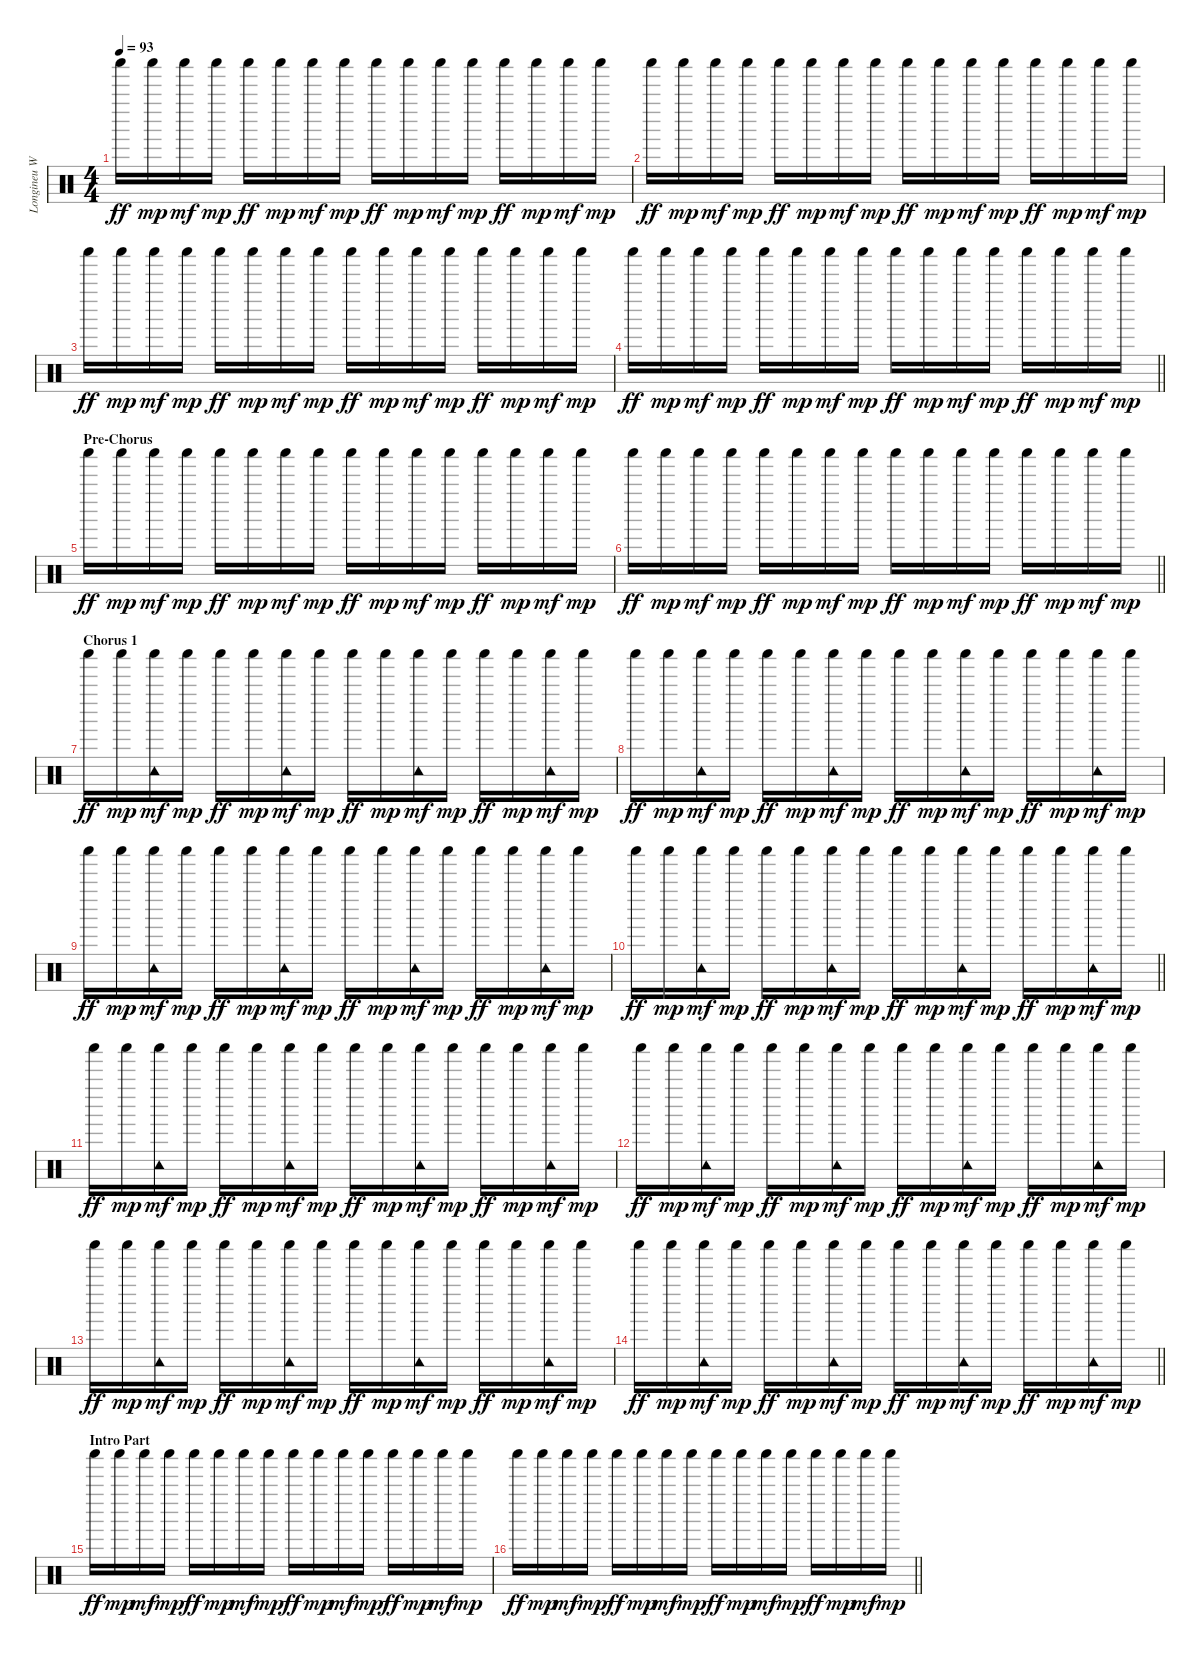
\track ("Longineu W. Parsons |||" "Longineu W") {instrument percussion}
\staff {score}
\articulation defaults
\ts (4 4)
\tempo 93
\clef neutral
\ks c "Shaker (hit)".16{dy ff} "Shaker (hit)".16{dy mp} "Shaker (hit)".16{dy mf} "Shaker (hit)".16{dy mp} "Shaker (hit)".16{dy ff} "Shaker (hit)".16{dy mp} "Shaker (hit)".16{dy mf} "Shaker (hit)".16{dy mp} "Shaker (hit)".16{dy ff} "Shaker (hit)".16{dy mp} "Shaker (hit)".16{dy mf} "Shaker (hit)".16{dy mp} "Shaker (hit)".16{dy ff} "Shaker (hit)".16{dy mp} "Shaker (hit)".16{dy mf} "Shaker (hit)".16{dy mp}
|
"Shaker (hit)".16{dy ff} "Shaker (hit)".16{dy mp} "Shaker (hit)".16{dy mf} "Shaker (hit)".16{dy mp} "Shaker (hit)".16{dy ff} "Shaker (hit)".16{dy mp} "Shaker (hit)".16{dy mf} "Shaker (hit)".16{dy mp} "Shaker (hit)".16{dy ff} "Shaker (hit)".16{dy mp} "Shaker (hit)".16{dy mf} "Shaker (hit)".16{dy mp} "Shaker (hit)".16{dy ff} "Shaker (hit)".16{dy mp} "Shaker (hit)".16{dy mf} "Shaker (hit)".16{dy mp} |
"Shaker (hit)".16{dy ff} "Shaker (hit)".16{dy mp} "Shaker (hit)".16{dy mf} "Shaker (hit)".16{dy mp} "Shaker (hit)".16{dy ff} "Shaker (hit)".16{dy mp} "Shaker (hit)".16{dy mf} "Shaker (hit)".16{dy mp} "Shaker (hit)".16{dy ff} "Shaker (hit)".16{dy mp} "Shaker (hit)".16{dy mf} "Shaker (hit)".16{dy mp} "Shaker (hit)".16{dy ff} "Shaker (hit)".16{dy mp} "Shaker (hit)".16{dy mf} "Shaker (hit)".16{dy mp} |
\barLineRight lightlight "Shaker (hit)".16{dy ff} "Shaker (hit)".16{dy mp} "Shaker (hit)".16{dy mf} "Shaker (hit)".16{dy mp} "Shaker (hit)".16{dy ff} "Shaker (hit)".16{dy mp} "Shaker (hit)".16{dy mf} "Shaker (hit)".16{dy mp} "Shaker (hit)".16{dy ff} "Shaker (hit)".16{dy mp} "Shaker (hit)".16{dy mf} "Shaker (hit)".16{dy mp} "Shaker (hit)".16{dy ff} "Shaker (hit)".16{dy mp} "Shaker (hit)".16{dy mf} "Shaker (hit)".16{dy mp}
|
\section ("" "Pre-Chorus")
"Shaker (hit)".16{dy ff} "Shaker (hit)".16{dy mp} "Shaker (hit)".16{dy mf} "Shaker (hit)".16{dy mp} "Shaker (hit)".16{dy ff} "Shaker (hit)".16{dy mp} "Shaker (hit)".16{dy mf} "Shaker (hit)".16{dy mp} "Shaker (hit)".16{dy ff} "Shaker (hit)".16{dy mp} "Shaker (hit)".16{dy mf} "Shaker (hit)".16{dy mp} "Shaker (hit)".16{dy ff} "Shaker (hit)".16{dy mp} "Shaker (hit)".16{dy mf} "Shaker (hit)".16{dy mp} |
\barLineRight lightlight "Shaker (hit)".16{dy ff} "Shaker (hit)".16{dy mp} "Shaker (hit)".16{dy mf} "Shaker (hit)".16{dy mp} "Shaker (hit)".16{dy ff} "Shaker (hit)".16{dy mp} "Shaker (hit)".16{dy mf} "Shaker (hit)".16{dy mp} "Shaker (hit)".16{dy ff} "Shaker (hit)".16{dy mp} "Shaker (hit)".16{dy mf} "Shaker (hit)".16{dy mp} "Shaker (hit)".16{dy ff} "Shaker (hit)".16{dy mp} "Shaker (hit)".16{dy mf} "Shaker (hit)".16{dy mp}
|
\section ("" "Chorus 1")
"Shaker (hit)".16{dy ff} "Shaker (hit)".16{dy mp} ("Tambourine (hit)" "Shaker (hit)").16{dy mf} "Shaker (hit)".16{dy mp} "Shaker (hit)".16{dy ff} "Shaker (hit)".16{dy mp} ("Tambourine (hit)" "Shaker (hit)").16{dy mf} "Shaker (hit)".16{dy mp} "Shaker (hit)".16{dy ff} "Shaker (hit)".16{dy mp} ("Tambourine (hit)" "Shaker (hit)").16{dy mf} "Shaker (hit)".16{dy mp} "Shaker (hit)".16{dy ff} "Shaker (hit)".16{dy mp} ("Tambourine (hit)" "Shaker (hit)").16{dy mf} "Shaker (hit)".16{dy mp} |
"Shaker (hit)".16{dy ff} "Shaker (hit)".16{dy mp} ("Tambourine (hit)" "Shaker (hit)").16{dy mf} "Shaker (hit)".16{dy mp} "Shaker (hit)".16{dy ff} "Shaker (hit)".16{dy mp} ("Tambourine (hit)" "Shaker (hit)").16{dy mf} "Shaker (hit)".16{dy mp} "Shaker (hit)".16{dy ff} "Shaker (hit)".16{dy mp} ("Tambourine (hit)" "Shaker (hit)").16{dy mf} "Shaker (hit)".16{dy mp} "Shaker (hit)".16{dy ff} "Shaker (hit)".16{dy mp} ("Tambourine (hit)" "Shaker (hit)").16{dy mf} "Shaker (hit)".16{dy mp} |
"Shaker (hit)".16{dy ff} "Shaker (hit)".16{dy mp} ("Tambourine (hit)" "Shaker (hit)").16{dy mf} "Shaker (hit)".16{dy mp} "Shaker (hit)".16{dy ff} "Shaker (hit)".16{dy mp} ("Tambourine (hit)" "Shaker (hit)").16{dy mf} "Shaker (hit)".16{dy mp} "Shaker (hit)".16{dy ff} "Shaker (hit)".16{dy mp} ("Tambourine (hit)" "Shaker (hit)").16{dy mf} "Shaker (hit)".16{dy mp} "Shaker (hit)".16{dy ff} "Shaker (hit)".16{dy mp} ("Tambourine (hit)" "Shaker (hit)").16{dy mf} "Shaker (hit)".16{dy mp} |
\barLineRight lightlight "Shaker (hit)".16{dy ff} "Shaker (hit)".16{dy mp}
("Tambourine (hit)" "Shaker (hit)").16{dy mf} "Shaker (hit)".16{dy mp} "Shaker (hit)".16{dy ff} "Shaker (hit)".16{dy mp} ("Tambourine (hit)" "Shaker (hit)").16{dy mf} "Shaker (hit)".16{dy mp} "Shaker (hit)".16{dy ff} "Shaker (hit)".16{dy mp} ("Tambourine (hit)" "Shaker (hit)").16{dy mf} "Shaker (hit)".16{dy mp} "Shaker (hit)".16{dy ff} "Shaker (hit)".16{dy mp} ("Tambourine (hit)" "Shaker (hit)").16{dy mf} "Shaker (hit)".16{dy mp} |
"Shaker (hit)".16{dy ff} "Shaker (hit)".16{dy mp} ("Tambourine (hit)" "Shaker (hit)").16{dy mf} "Shaker (hit)".16{dy mp} "Shaker (hit)".16{dy ff} "Shaker (hit)".16{dy mp} ("Tambourine (hit)" "Shaker (hit)").16{dy mf} "Shaker (hit)".16{dy mp} "Shaker (hit)".16{dy ff} "Shaker (hit)".16{dy mp} ("Tambourine (hit)" "Shaker (hit)").16{dy mf} "Shaker (hit)".16{dy mp} "Shaker (hit)".16{dy ff} "Shaker (hit)".16{dy mp} ("Tambourine (hit)" "Shaker (hit)").16{dy mf} "Shaker (hit)".16{dy mp} |
"Shaker (hit)".16{dy ff} "Shaker (hit)".16{dy mp} ("Tambourine (hit)" "Shaker (hit)").16{dy mf} "Shaker (hit)".16{dy mp} "Shaker (hit)".16{dy ff} "Shaker (hit)".16{dy mp} ("Tambourine (hit)" "Shaker (hit)").16{dy mf} "Shaker (hit)".16{dy mp} "Shaker (hit)".16{dy ff} "Shaker (hit)".16{dy mp} ("Tambourine (hit)" "Shaker (hit)").16{dy mf} "Shaker (hit)".16{dy mp} "Shaker (hit)".16{dy ff} "Shaker (hit)".16{dy mp} ("Tambourine (hit)" "Shaker (hit)").16{dy mf} "Shaker (hit)".16{dy mp} |
"Shaker (hit)".16{dy ff} "Shaker (hit)".16{dy mp} ("Tambourine (hit)" "Shaker (hit)").16{dy mf} "Shaker (hit)".16{dy mp} "Shaker (hit)".16{dy ff} "Shaker (hit)".16{dy mp} ("Tambourine (hit)" "Shaker (hit)").16{dy mf} "Shaker (hit)".16{dy mp} "Shaker (hit)".16{dy ff} "Shaker (hit)".16{dy mp} ("Tambourine (hit)" "Shaker (hit)").16{dy mf} "Shaker (hit)".16{dy mp} "Shaker (hit)".16{dy ff} "Shaker (hit)".16{dy mp} ("Tambourine (hit)" "Shaker (hit)").16{dy mf} "Shaker (hit)".16{dy mp} |
\barLineRight lightlight "Shaker (hit)".16{dy ff} "Shaker (hit)".16{dy mp}
("Tambourine (hit)" "Shaker (hit)").16{dy mf} "Shaker (hit)".16{dy mp} "Shaker (hit)".16{dy ff} "Shaker (hit)".16{dy mp} ("Tambourine (hit)" "Shaker (hit)").16{dy mf} "Shaker (hit)".16{dy mp} "Shaker (hit)".16{dy ff} "Shaker (hit)".16{dy mp} ("Tambourine (hit)" "Shaker (hit)").16{dy mf} "Shaker (hit)".16{dy mp} "Shaker (hit)".16{dy ff} "Shaker (hit)".16{dy mp} ("Tambourine (hit)" "Shaker (hit)").16{dy mf} "Shaker (hit)".16{dy mp} |
\section ("" "Intro Part")
"Shaker (hit)".16{dy ff} "Shaker (hit)".16{dy mp} "Shaker (hit)".16{dy mf} "Shaker (hit)".16{dy mp} "Shaker (hit)".16{dy ff} "Shaker (hit)".16{dy mp} "Shaker (hit)".16{dy mf} "Shaker (hit)".16{dy mp} "Shaker (hit)".16{dy ff} "Shaker (hit)".16{dy mp} "Shaker (hit)".16{dy mf} "Shaker (hit)".16{dy mp} "Shaker (hit)".16{dy ff} "Shaker (hit)".16{dy mp} "Shaker (hit)".16{dy mf} "Shaker (hit)".16{dy mp} |
\barLineRight lightlight "Shaker (hit)".16{dy ff} "Shaker (hit)".16{dy mp} "Shaker (hit)".16{dy mf} "Shaker (hit)".16{dy mp} "Shaker (hit)".16{dy ff} "Shaker (hit)".16{dy mp} "Shaker (hit)".16{dy mf} "Shaker (hit)".16{dy mp} "Shaker (hit)".16{dy ff} "Shaker (hit)".16{dy mp} "Shaker (hit)".16{dy mf} "Shaker (hit)".16{dy mp} "Shaker (hit)".16{dy ff} "Shaker (hit)".16{dy mp} "Shaker (hit)".16{dy mf} "Shaker (hit)".16{dy mp}
